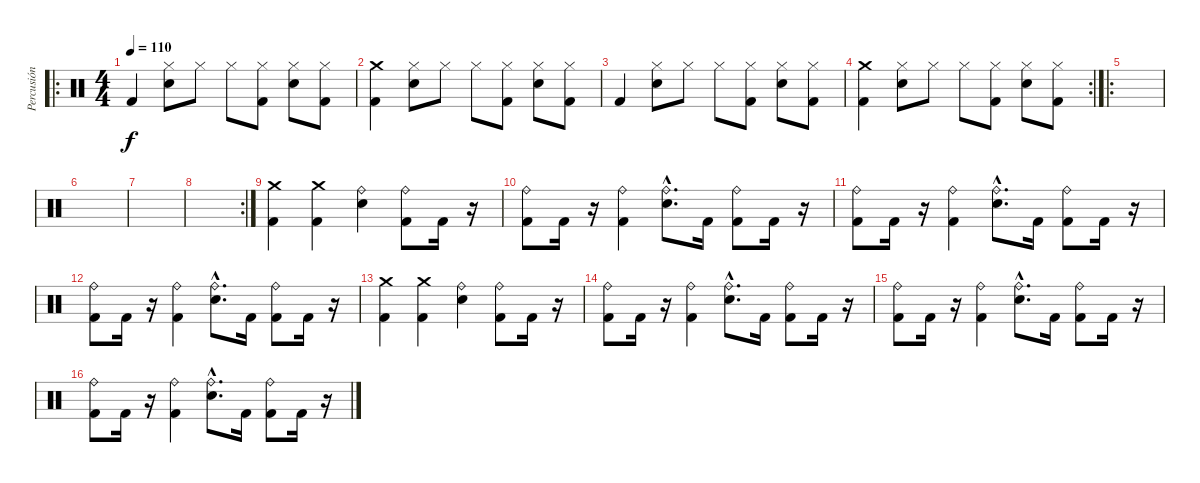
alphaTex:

\track ("Percusión" "Percusión") {instrument percussion}
\staff {score}
\articulation defaults
\ro
\ts (4 4)
\tempo 110
\clef neutral
\ks c "Kick (hit) 2".4{dy f}
("Snare (hit) 2" "Hi-Hat (closed)").8 "Hi-Hat (closed)".8 "Hi-Hat (closed)".8 ("Kick (hit) 2" "Hi-Hat (closed)").8 ("Snare (hit) 2" "Hi-Hat (closed)").8 ("Kick (hit) 2" "Hi-Hat (closed)").8 |
("Crash medium (hit)" "Kick (hit) 2").4 ("Snare (hit) 2" "Hi-Hat (closed)").8 "Hi-Hat (closed)".8 "Hi-Hat (closed)".8 ("Kick (hit) 2" "Hi-Hat (closed)").8 ("Snare (hit) 2" "Hi-Hat (closed)").8 ("Kick (hit) 2" "Hi-Hat (closed)").8 |
"Kick (hit) 2".4 ("Snare (hit) 2" "Hi-Hat (closed)").8 "Hi-Hat (closed)".8 "Hi-Hat (closed)".8 ("Kick (hit) 2" "Hi-Hat (closed)").8 ("Snare (hit) 2" "Hi-Hat (closed)").8 ("Kick (hit) 2" "Hi-Hat (closed)").8 |
\rc 2
("Crash medium (hit)" "Kick (hit) 2").4 ("Snare (hit) 2" "Hi-Hat (closed)").8 "Hi-Hat (closed)".8 "Hi-Hat (closed)".8 ("Kick (hit) 2" "Hi-Hat (closed)").8 ("Snare (hit) 2" "Hi-Hat (closed)").8 ("Kick (hit) 2" "Hi-Hat (closed)").8 |
\ro
|
|
|
\rc 2
|
("Kick (hit) 2" "Crash medium (hit)").4 ("Kick (hit) 2" "Crash medium (hit)").4 ("Electric Snare (hit)" "Ride (bell)").4 ("Kick (hit) 2" "Ride (bell)").8 "Kick (hit) 2".16 r.16 |
("Kick (hit) 2" "Ride (bell)").8 "Kick (hit) 2".16 r.16 ("Kick (hit) 2" "Ride (bell)").4 ("Electric Snare (hit)"{hac} "Ride (bell)"{hac}).8{d} "Kick (hit) 2".16 ("Kick (hit) 2" "Ride (bell)").8 "Kick (hit) 2".16 r.16 |
("Kick (hit) 2" "Ride (bell)").8 "Kick (hit) 2".16 r.16 ("Kick (hit) 2" "Ride (bell)").4 ("Electric Snare (hit)"{hac} "Ride (bell)"{hac}).8{d} "Kick (hit) 2".16 ("Kick (hit) 2" "Ride (bell)").8 "Kick (hit) 2".16 r.16 |
("Kick (hit) 2" "Ride (bell)").8 "Kick (hit) 2".16 r.16 ("Kick (hit) 2" "Ride (bell)").4 ("Electric Snare (hit)"{hac} "Ride (bell)"{hac}).8{d} "Kick (hit) 2".16 ("Kick (hit) 2" "Ride (bell)").8 "Kick (hit) 2".16 r.16 |
("Kick (hit) 2" "Crash medium (hit)").4 ("Kick (hit) 2" "Crash medium (hit)").4 ("Electric Snare (hit)" "Ride (bell)").4 ("Kick (hit) 2" "Ride (bell)").8 "Kick (hit) 2".16 r.16 |
("Kick (hit) 2" "Ride (bell)").8 "Kick (hit) 2".16 r.16 ("Kick (hit) 2" "Ride (bell)").4 ("Electric Snare (hit)"{hac} "Ride (bell)"{hac}).8{d} "Kick (hit) 2".16 ("Kick (hit) 2" "Ride (bell)").8 "Kick (hit) 2".16 r.16 |
("Kick (hit) 2" "Ride (bell)").8 "Kick (hit) 2".16 r.16 ("Kick (hit) 2" "Ride (bell)").4 ("Electric Snare (hit)"{hac} "Ride (bell)"{hac}).8{d} "Kick (hit) 2".16 ("Kick (hit) 2" "Ride (bell)").8 "Kick (hit) 2".16 r.16 |
("Kick (hit) 2" "Ride (bell)").8 "Kick (hit) 2".16 r.16 ("Kick (hit) 2" "Ride (bell)").4 ("Electric Snare (hit)"{hac} "Ride (bell)"{hac}).8{d} "Kick (hit) 2".16 ("Kick (hit) 2" "Ride (bell)").8 "Kick (hit) 2".16 r.16
